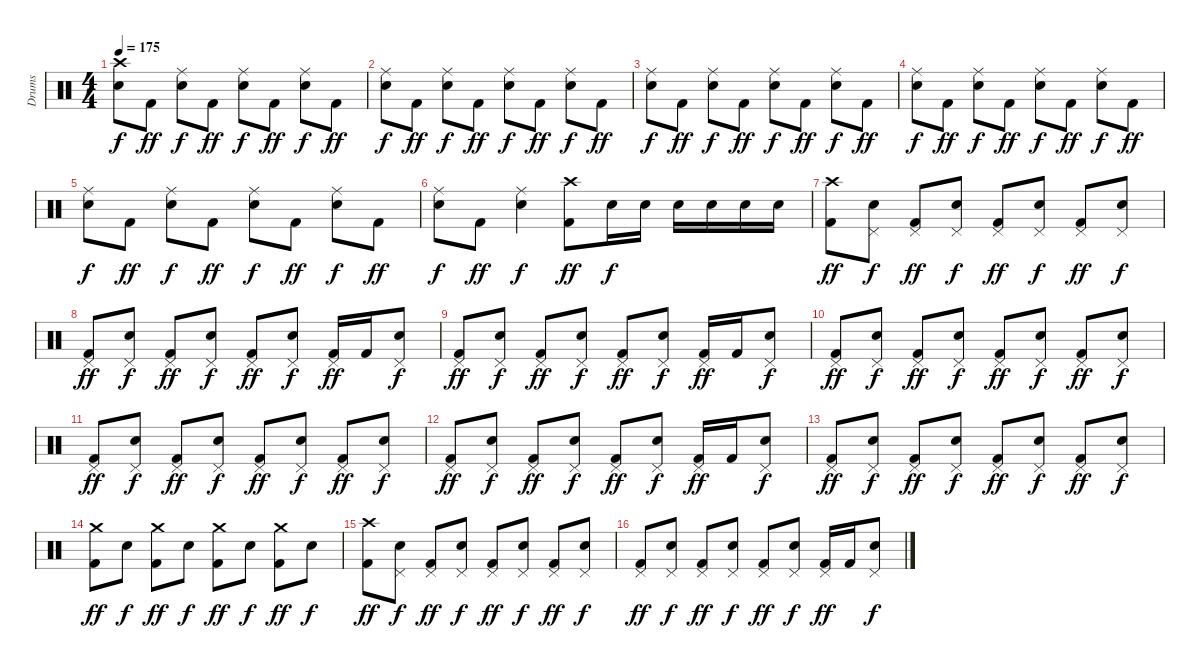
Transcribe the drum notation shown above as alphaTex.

\track ("Drums" "Drums") {instrument percussion}
\staff {score}
\articulation defaults
\ts (4 4)
\tempo 175
\clef neutral
\ks c
("Crash high (hit)" "Electric Snare (hit)").8{dy f} "Kick (hit) 2".8{dy ff} ("Ride (middle)" "Electric Snare (hit)").8{dy f} "Kick (hit) 2".8{dy ff} ("Ride (middle)" "Electric Snare (hit)").8{dy f} "Kick (hit) 2".8{dy ff} ("Ride (middle)" "Electric Snare (hit)").8{dy f} "Kick (hit) 2".8{dy ff} |
("Ride (middle)" "Electric Snare (hit)").8{dy f} "Kick (hit) 2".8{dy ff} ("Ride (middle)" "Electric Snare (hit)").8{dy f} "Kick (hit) 2".8{dy ff} ("Ride (middle)" "Electric Snare (hit)").8{dy f} "Kick (hit) 2".8{dy ff} ("Ride (middle)" "Electric Snare (hit)").8{dy f} "Kick (hit) 2".8{dy ff} |
("Ride (middle)" "Electric Snare (hit)").8{dy f} "Kick (hit) 2".8{dy ff} ("Ride (middle)" "Electric Snare (hit)").8{dy f} "Kick (hit) 2".8{dy ff} ("Ride (middle)" "Electric Snare (hit)").8{dy f} "Kick (hit) 2".8{dy ff} ("Ride (middle)" "Electric Snare (hit)").8{dy f} "Kick (hit) 2".8{dy ff} |
("Ride (middle)" "Electric Snare (hit)").8{dy f} "Kick (hit) 2".8{dy ff} ("Ride (middle)" "Electric Snare (hit)").8{dy f} "Kick (hit) 2".8{dy ff} ("Ride (middle)" "Electric Snare (hit)").8{dy f} "Kick (hit) 2".8{dy ff} ("Ride (middle)" "Electric Snare (hit)").8{dy f} "Kick (hit) 2".8{dy ff} |
("Ride (middle)" "Electric Snare (hit)").8{dy f} "Kick (hit) 2".8{dy ff} ("Ride (middle)" "Electric Snare (hit)").8{dy f} "Kick (hit) 2".8{dy ff} ("Ride (middle)" "Electric Snare (hit)").8{dy f} "Kick (hit) 2".8{dy ff} ("Ride (middle)" "Electric Snare (hit)").8{dy f} "Kick (hit) 2".8{dy ff} |
("Ride (middle)" "Electric Snare (hit)").8{dy f} "Kick (hit) 2".8{dy ff} ("Ride (middle)" "Electric Snare (hit)").4{dy f} ("Crash high (hit)" "Kick (hit) 2").8{dy ff} "Electric Snare (hit)".16{dy f} "Electric Snare (hit)".16 "Electric Snare (hit)".16 "Electric Snare (hit)".16 "Electric Snare (hit)".16 "Electric Snare (hit)".16 |
("Crash high (hit)" "Kick (hit) 2").8{dy ff} ("Pedal Hi-Hat (hit)" "Electric Snare (hit)").8{dy f} ("Pedal Hi-Hat (hit)" "Kick (hit) 2").8{dy ff} ("Pedal Hi-Hat (hit)" "Electric Snare (hit)").8{dy f} ("Pedal Hi-Hat (hit)" "Kick (hit) 2").8{dy ff} ("Pedal Hi-Hat (hit)" "Electric Snare (hit)").8{dy f} ("Pedal Hi-Hat (hit)" "Kick (hit) 2").8{dy ff} ("Pedal Hi-Hat (hit)" "Electric Snare (hit)").8{dy f} |
("Pedal Hi-Hat (hit)" "Kick (hit) 2").8{dy ff} ("Pedal Hi-Hat (hit)" "Electric Snare (hit)").8{dy f} ("Pedal Hi-Hat (hit)" "Kick (hit) 2").8{dy ff} ("Pedal Hi-Hat (hit)" "Electric Snare (hit)").8{dy f} ("Pedal Hi-Hat (hit)" "Kick (hit) 2").8{dy ff} ("Pedal Hi-Hat (hit)" "Electric Snare (hit)").8{dy f} ("Pedal Hi-Hat (hit)" "Kick (hit) 2").16{dy ff} "Kick (hit) 2".16 ("Pedal Hi-Hat (hit)" "Electric Snare (hit)").8{dy f} |
("Pedal Hi-Hat (hit)" "Kick (hit) 2").8{dy ff} ("Pedal Hi-Hat (hit)" "Electric Snare (hit)").8{dy f} ("Pedal Hi-Hat (hit)" "Kick (hit) 2").8{dy ff} ("Pedal Hi-Hat (hit)" "Electric Snare (hit)").8{dy f} ("Pedal Hi-Hat (hit)" "Kick (hit) 2").8{dy ff} ("Pedal Hi-Hat (hit)" "Electric Snare (hit)").8{dy f} ("Pedal Hi-Hat (hit)" "Kick (hit) 2").16{dy ff} "Kick (hit) 2".16 ("Pedal Hi-Hat (hit)" "Electric Snare (hit)").8{dy f} |
("Pedal Hi-Hat (hit)" "Kick (hit) 2").8{dy ff} ("Pedal Hi-Hat (hit)" "Electric Snare (hit)").8{dy f} ("Pedal Hi-Hat (hit)" "Kick (hit) 2").8{dy ff} ("Pedal Hi-Hat (hit)" "Electric Snare (hit)").8{dy f} ("Pedal Hi-Hat (hit)" "Kick (hit) 2").8{dy ff} ("Pedal Hi-Hat (hit)" "Electric Snare (hit)").8{dy f} ("Pedal Hi-Hat (hit)" "Kick (hit) 2").8{dy ff} ("Pedal Hi-Hat (hit)" "Electric Snare (hit)").8{dy f} |
("Pedal Hi-Hat (hit)" "Kick (hit) 2").8{dy ff} ("Pedal Hi-Hat (hit)" "Electric Snare (hit)").8{dy f} ("Pedal Hi-Hat (hit)" "Kick (hit) 2").8{dy ff} ("Pedal Hi-Hat (hit)" "Electric Snare (hit)").8{dy f} ("Pedal Hi-Hat (hit)" "Kick (hit) 2").8{dy ff} ("Pedal Hi-Hat (hit)" "Electric Snare (hit)").8{dy f} ("Pedal Hi-Hat (hit)" "Kick (hit) 2").8{dy ff} ("Pedal Hi-Hat (hit)" "Electric Snare (hit)").8{dy f} |
("Pedal Hi-Hat (hit)" "Kick (hit) 2").8{dy ff} ("Pedal Hi-Hat (hit)" "Electric Snare (hit)").8{dy f} ("Pedal Hi-Hat (hit)" "Kick (hit) 2").8{dy ff} ("Pedal Hi-Hat (hit)" "Electric Snare (hit)").8{dy f} ("Pedal Hi-Hat (hit)" "Kick (hit) 2").8{dy ff} ("Pedal Hi-Hat (hit)" "Electric Snare (hit)").8{dy f} ("Pedal Hi-Hat (hit)" "Kick (hit) 2").16{dy ff} "Kick (hit) 2".16 ("Pedal Hi-Hat (hit)" "Electric Snare (hit)").8{dy f} |
("Pedal Hi-Hat (hit)" "Kick (hit) 2").8{dy ff} ("Pedal Hi-Hat (hit)" "Electric Snare (hit)").8{dy f} ("Pedal Hi-Hat (hit)" "Kick (hit) 2").8{dy ff} ("Pedal Hi-Hat (hit)" "Electric Snare (hit)").8{dy f} ("Pedal Hi-Hat (hit)" "Kick (hit) 2").8{dy ff} ("Pedal Hi-Hat (hit)" "Electric Snare (hit)").8{dy f} ("Pedal Hi-Hat (hit)" "Kick (hit) 2").8{dy ff} ("Pedal Hi-Hat (hit)" "Electric Snare (hit)").8{dy f} |
("Crash medium (hit)" "Kick (hit) 2").8{dy ff} "Electric Snare (hit)".8{dy f} ("Crash medium (hit)" "Kick (hit) 2").8{dy ff} "Electric Snare (hit)".8{dy f} ("Crash medium (hit)" "Kick (hit) 2").8{dy ff} "Electric Snare (hit)".8{dy f} ("Crash medium (hit)" "Kick (hit) 2").8{dy ff} "Electric Snare (hit)".8{dy f} |
("Crash high (hit)" "Kick (hit) 2").8{dy ff} ("Pedal Hi-Hat (hit)" "Electric Snare (hit)").8{dy f} ("Pedal Hi-Hat (hit)" "Kick (hit) 2").8{dy ff} ("Pedal Hi-Hat (hit)" "Electric Snare (hit)").8{dy f} ("Pedal Hi-Hat (hit)" "Kick (hit) 2").8{dy ff} ("Pedal Hi-Hat (hit)" "Electric Snare (hit)").8{dy f} ("Pedal Hi-Hat (hit)" "Kick (hit) 2").8{dy ff} ("Pedal Hi-Hat (hit)" "Electric Snare (hit)").8{dy f} |
("Pedal Hi-Hat (hit)" "Kick (hit) 2").8{dy ff} ("Pedal Hi-Hat (hit)" "Electric Snare (hit)").8{dy f} ("Pedal Hi-Hat (hit)" "Kick (hit) 2").8{dy ff} ("Pedal Hi-Hat (hit)" "Electric Snare (hit)").8{dy f} ("Pedal Hi-Hat (hit)" "Kick (hit) 2").8{dy ff} ("Pedal Hi-Hat (hit)" "Electric Snare (hit)").8{dy f} ("Pedal Hi-Hat (hit)" "Kick (hit) 2").16{dy ff} "Kick (hit) 2".16 ("Pedal Hi-Hat (hit)" "Electric Snare (hit)").8{dy f}
